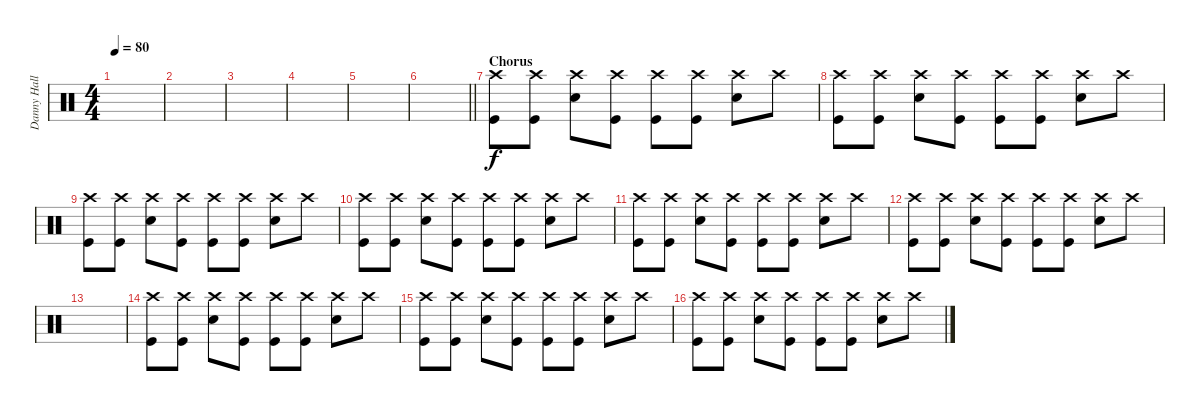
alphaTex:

\track ("Danny Hall" "Danny Hall") {instrument percussion}
\staff {score}
\articulation defaults
\ts (4 4)
\tempo 80
\clef neutral
\ks c
|
|
|
|
|
\barLineRight lightlight
|
\section ("" "Chorus")
("Crash high (hit)" "Kick (hit)").8 ("Crash high (hit)" "Kick (hit)").8 ("Crash high (hit)" "Snare (hit) 2").8 ("Crash high (hit)" "Kick (hit)").8 ("Crash high (hit)" "Kick (hit)").8 ("Crash high (hit)" "Kick (hit)").8 ("Crash high (hit)" "Snare (hit) 2").8 "Crash high (hit)".8 |
("Crash high (hit)" "Kick (hit)").8 ("Crash high (hit)" "Kick (hit)").8 ("Crash high (hit)" "Snare (hit) 2").8 ("Crash high (hit)" "Kick (hit)").8 ("Crash high (hit)" "Kick (hit)").8 ("Crash high (hit)" "Kick (hit)").8 ("Crash high (hit)" "Snare (hit) 2").8 "Crash high (hit)".8 |
("Crash high (hit)" "Kick (hit)").8 ("Crash high (hit)" "Kick (hit)").8 ("Crash high (hit)" "Snare (hit) 2").8 ("Crash high (hit)" "Kick (hit)").8 ("Crash high (hit)" "Kick (hit)").8 ("Crash high (hit)" "Kick (hit)").8 ("Crash high (hit)" "Snare (hit) 2").8 "Crash high (hit)".8 |
("Crash high (hit)" "Kick (hit)").8 ("Crash high (hit)" "Kick (hit)").8 ("Crash high (hit)" "Snare (hit) 2").8 ("Crash high (hit)" "Kick (hit)").8 ("Crash high (hit)" "Kick (hit)").8 ("Crash high (hit)" "Kick (hit)").8 ("Crash high (hit)" "Snare (hit) 2").8 "Crash high (hit)".8 |
("Crash high (hit)" "Kick (hit)").8 ("Crash high (hit)" "Kick (hit)").8 ("Crash high (hit)" "Snare (hit) 2").8 ("Crash high (hit)" "Kick (hit)").8 ("Crash high (hit)" "Kick (hit)").8 ("Crash high (hit)" "Kick (hit)").8 ("Crash high (hit)" "Snare (hit) 2").8 "Crash high (hit)".8 |
("Crash high (hit)" "Kick (hit)").8 ("Crash high (hit)" "Kick (hit)").8 ("Crash high (hit)" "Snare (hit) 2").8 ("Crash high (hit)" "Kick (hit)").8 ("Crash high (hit)" "Kick (hit)").8 ("Crash high (hit)" "Kick (hit)").8 ("Crash high (hit)" "Snare (hit) 2").8 "Crash high (hit)".8 |
|
("Crash high (hit)" "Kick (hit)").8 ("Crash high (hit)" "Kick (hit)").8 ("Crash high (hit)" "Snare (hit) 2").8 ("Crash high (hit)" "Kick (hit)").8 ("Crash high (hit)" "Kick (hit)").8 ("Crash high (hit)" "Kick (hit)").8 ("Crash high (hit)" "Snare (hit) 2").8 "Crash high (hit)".8 |
("Crash high (hit)" "Kick (hit)").8 ("Crash high (hit)" "Kick (hit)").8 ("Crash high (hit)" "Snare (hit) 2").8 ("Crash high (hit)" "Kick (hit)").8 ("Crash high (hit)" "Kick (hit)").8 ("Crash high (hit)" "Kick (hit)").8 ("Crash high (hit)" "Snare (hit) 2").8 "Crash high (hit)".8 |
("Crash high (hit)" "Kick (hit)").8 ("Crash high (hit)" "Kick (hit)").8 ("Crash high (hit)" "Snare (hit) 2").8 ("Crash high (hit)" "Kick (hit)").8 ("Crash high (hit)" "Kick (hit)").8 ("Crash high (hit)" "Kick (hit)").8 ("Crash high (hit)" "Snare (hit) 2").8 "Crash high (hit)".8
